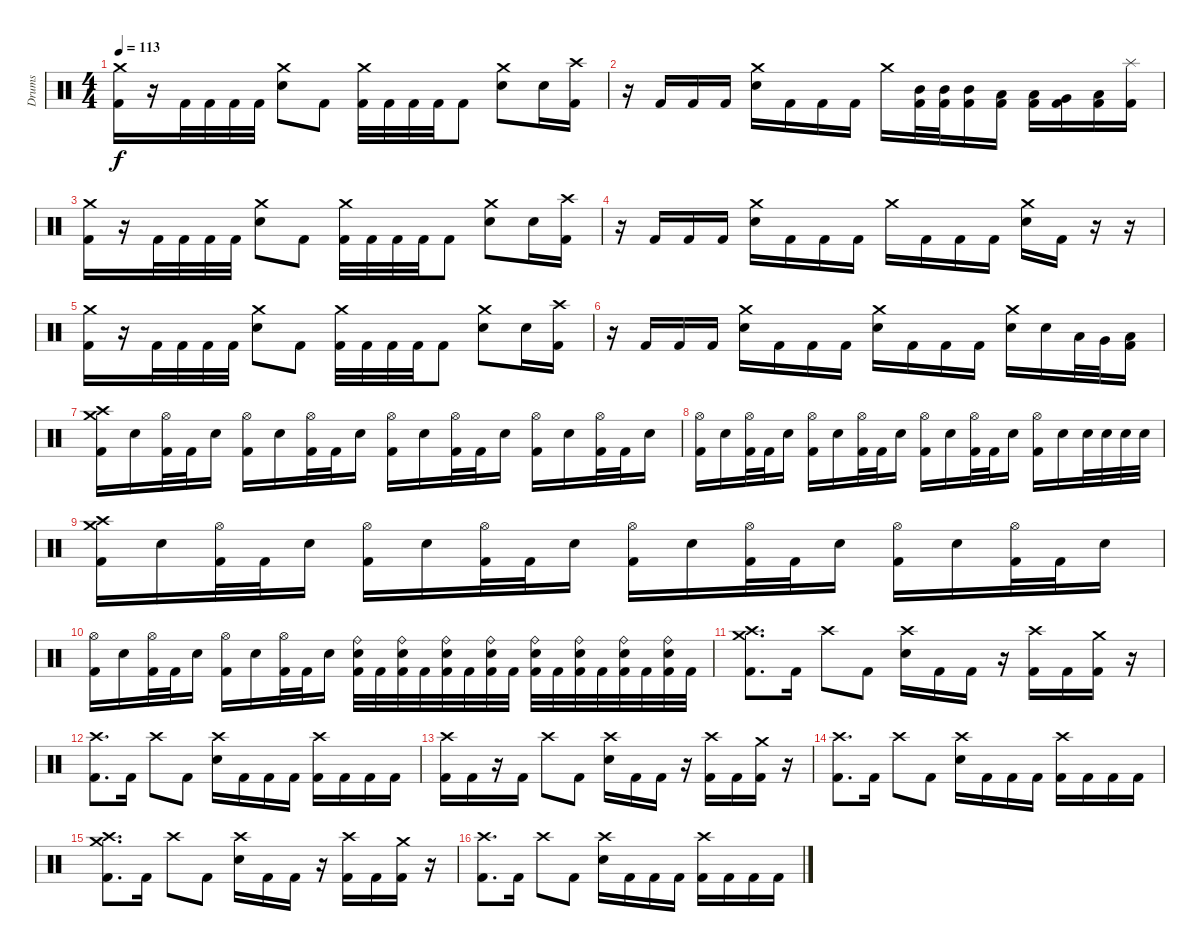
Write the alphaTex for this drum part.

\track ("Drums" "Drums") {instrument percussion}
\staff {score}
\articulation defaults
\ts (4 4)
\tempo 113
\clef neutral
\ks c
("Crash medium (hit)" "Kick (hit) 2").16{dy f} r.16 "Kick (hit) 2".32 "Kick (hit) 2".32 "Kick (hit) 2".32 "Kick (hit) 2".32 ("Crash medium (hit)" "Snare (hit) 2").8 "Kick (hit) 2".8 ("Crash medium (hit)" "Kick (hit) 2").32 "Kick (hit) 2".32 "Kick (hit) 2".32 "Kick (hit) 2".32 "Kick (hit) 2".8 ("Crash medium (hit)" "Snare (hit) 2").8 "Snare (hit) 2".16 ("Crash high (hit)" "Kick (hit) 2").16 |
r.16 "Kick (hit) 2".16 "Kick (hit) 2".16 "Kick (hit) 2".16 ("Crash medium (hit)" "Snare (hit) 2").16 "Kick (hit) 2".16 "Kick (hit) 2".16 "Kick (hit) 2".16 "Crash medium (hit)".16 ("Mid Tom (hit)" "Kick (hit) 2").32 ("Mid Tom (hit)" "Kick (hit) 2").32 ("Mid Tom (hit)" "Kick (hit) 2").16 ("Low Tom (hit)" "Kick (hit) 2").16 ("Low Tom (hit)" "Kick (hit) 2").16 ("Very Low Tom (hit)" "Kick (hit) 2").16 ("Low Floor Tom (hit)" "Kick (hit) 2").16 ("Splash (hit)" "Kick (hit) 2").16 |
("Crash medium (hit)" "Kick (hit) 2").16 r.16 "Kick (hit) 2".32 "Kick (hit) 2".32 "Kick (hit) 2".32 "Kick (hit) 2".32 ("Crash medium (hit)" "Snare (hit) 2").8 "Kick (hit) 2".8 ("Crash medium (hit)" "Kick (hit) 2").32 "Kick (hit) 2".32 "Kick (hit) 2".32 "Kick (hit) 2".32 "Kick (hit) 2".8 ("Crash medium (hit)" "Snare (hit) 2").8 "Snare (hit) 2".16 ("Crash high (hit)" "Kick (hit) 2").16 |
r.16 "Kick (hit) 2".16 "Kick (hit) 2".16 "Kick (hit) 2".16 ("Crash medium (hit)" "Snare (hit) 2").16 "Kick (hit) 2".16 "Kick (hit) 2".16 "Kick (hit) 2".16 "Crash medium (hit)".16 "Kick (hit) 2".16 "Kick (hit) 2".16 "Kick (hit) 2".16 ("Crash medium (hit)" "Snare (hit) 2").16 "Kick (hit) 2".16 r.16 r.16 |
("Crash medium (hit)" "Kick (hit) 2").16 r.16 "Kick (hit) 2".32 "Kick (hit) 2".32 "Kick (hit) 2".32 "Kick (hit) 2".32 ("Crash medium (hit)" "Snare (hit) 2").8 "Kick (hit) 2".8 ("Crash medium (hit)" "Kick (hit) 2").32 "Kick (hit) 2".32 "Kick (hit) 2".32 "Kick (hit) 2".32 "Kick (hit) 2".8 ("Crash medium (hit)" "Snare (hit) 2").8 "Snare (hit) 2".16 ("Crash high (hit)" "Kick (hit) 2").16 |
r.16 "Kick (hit) 2".16 "Kick (hit) 2".16 "Kick (hit) 2".16 ("Crash medium (hit)" "Snare (hit) 2").16 "Kick (hit) 2".16 "Kick (hit) 2".16 "Kick (hit) 2".16 ("Crash medium (hit)" "Snare (hit) 2").16 "Kick (hit) 2".16 "Kick (hit) 2".16 "Kick (hit) 2".16 ("Crash medium (hit)" "Snare (hit) 2").16 "Snare (hit) 2".16 "Low Tom (hit)".32 "Very Low Tom (hit)".32 ("Low Floor Tom (hit)" "Kick (hit) 2").16 |
("Crash high (hit)" "Crash medium (hit)" "Kick (hit) 2").16 "Snare (hit) 2".16 ("Hi-Hat (open)" "Kick (hit) 2").32 "Kick (hit) 2".32 "Snare (hit) 2".16 ("Hi-Hat (open)" "Kick (hit) 2").16 "Snare (hit) 2".16 ("Hi-Hat (open)" "Kick (hit) 2").32 "Kick (hit) 2".32 "Snare (hit) 2".16 ("Hi-Hat (open)" "Kick (hit) 2").16 "Snare (hit) 2".16 ("Hi-Hat (open)" "Kick (hit) 2").32 "Kick (hit) 2".32 "Snare (hit) 2".16 ("Hi-Hat (open)" "Kick (hit) 2").16 "Snare (hit) 2".16 ("Hi-Hat (open)" "Kick (hit) 2").32 "Kick (hit) 2".32 "Snare (hit) 2".16 |
("Hi-Hat (open)" "Kick (hit) 2").16 "Snare (hit) 2".16 ("Hi-Hat (open)" "Kick (hit) 2").32 "Kick (hit) 2".32 "Snare (hit) 2".16 ("Hi-Hat (open)" "Kick (hit) 2").16 "Snare (hit) 2".16 ("Hi-Hat (open)" "Kick (hit) 2").32 "Kick (hit) 2".32 "Snare (hit) 2".16 ("Hi-Hat (open)" "Kick (hit) 2").16 "Snare (hit) 2".16 ("Hi-Hat (open)" "Kick (hit) 2").32 "Kick (hit) 2".32 "Snare (hit) 2".16 ("Hi-Hat (open)" "Kick (hit) 2").16 "Snare (hit) 2".16 "Snare (hit) 2".32 "Snare (hit) 2".32 "Snare (hit) 2".32 "Snare (hit) 2".32 |
("Crash high (hit)" "Crash medium (hit)" "Kick (hit) 2").16 "Snare (hit) 2".16 ("Hi-Hat (open)" "Kick (hit) 2").32 "Kick (hit) 2".32 "Snare (hit) 2".16 ("Hi-Hat (open)" "Kick (hit) 2").16 "Snare (hit) 2".16 ("Hi-Hat (open)" "Kick (hit) 2").32 "Kick (hit) 2".32 "Snare (hit) 2".16 ("Hi-Hat (open)" "Kick (hit) 2").16 "Snare (hit) 2".16 ("Hi-Hat (open)" "Kick (hit) 2").32 "Kick (hit) 2".32 "Snare (hit) 2".16 ("Hi-Hat (open)" "Kick (hit) 2").16 "Snare (hit) 2".16 ("Hi-Hat (open)" "Kick (hit) 2").32 "Kick (hit) 2".32 "Snare (hit) 2".16 |
("Hi-Hat (open)" "Kick (hit) 2").16 "Snare (hit) 2".16 ("Hi-Hat (open)" "Kick (hit) 2").32 "Kick (hit) 2".32 "Snare (hit) 2".16 ("Hi-Hat (open)" "Kick (hit) 2").16 "Snare (hit) 2".16 ("Hi-Hat (open)" "Kick (hit) 2").32 "Kick (hit) 2".32 "Snare (hit) 2".16 ("Ride (bell)" "Snare (hit) 2" "Kick (hit) 2").32 "Kick (hit) 2".32 ("Ride (bell)" "Snare (hit) 2" "Kick (hit) 2").32 "Kick (hit) 2".32 ("Ride (bell)" "Snare (hit) 2" "Kick (hit) 2").32 "Kick (hit) 2".32 ("Ride (bell)" "Snare (hit) 2" "Kick (hit) 2").32 "Kick (hit) 2".32 ("Ride (bell)" "Snare (hit) 2" "Kick (hit) 2").32 "Kick (hit) 2".32 ("Ride (bell)" "Snare (hit) 2" "Kick (hit) 2").32 "Kick (hit) 2".32 ("Ride (bell)" "Snare (hit) 2" "Kick (hit) 2").32 "Kick (hit) 2".32 ("Ride (bell)" "Snare (hit) 2" "Kick (hit) 2").32 "Kick (hit) 2".32 |
("Crash medium (hit)" "Crash high (hit)" "Kick (hit) 2").8{d} "Kick (hit) 2".16 "Crash high (hit)".8 "Kick (hit) 2".8 ("Crash high (hit)" "Snare (hit) 2").16 "Kick (hit) 2".16 "Kick (hit) 2".16 r.16 ("Crash high (hit)" "Kick (hit) 2").16 "Kick (hit) 2".16 ("Crash medium (hit)" "Kick (hit) 2").16 r.16 |
("Crash high (hit)" "Kick (hit) 2").8{d} "Kick (hit) 2".16 "Crash high (hit)".8 "Kick (hit) 2".8 ("Crash high (hit)" "Snare (hit) 2").16 "Kick (hit) 2".16 "Kick (hit) 2".16 "Kick (hit) 2".16 ("Crash high (hit)" "Kick (hit) 2").16 "Kick (hit) 2".16 "Kick (hit) 2".16 "Kick (hit) 2".16 |
("Crash high (hit)" "Kick (hit) 2").16 "Kick (hit) 2".16 r.16 "Kick (hit) 2".16 "Crash high (hit)".8 "Kick (hit) 2".8 ("Crash high (hit)" "Snare (hit) 2").16 "Kick (hit) 2".16 "Kick (hit) 2".16 r.16 ("Crash high (hit)" "Kick (hit) 2").16 "Kick (hit) 2".16 ("Crash medium (hit)" "Kick (hit) 2").16 r.16 |
("Crash high (hit)" "Kick (hit) 2").8{d} "Kick (hit) 2".16 "Crash high (hit)".8 "Kick (hit) 2".8 ("Crash high (hit)" "Snare (hit) 2").16 "Kick (hit) 2".16 "Kick (hit) 2".16 "Kick (hit) 2".16 ("Crash high (hit)" "Kick (hit) 2").16 "Kick (hit) 2".16 "Kick (hit) 2".16 "Kick (hit) 2".16 |
("Crash medium (hit)" "Crash high (hit)" "Kick (hit) 2").8{d} "Kick (hit) 2".16 "Crash high (hit)".8 "Kick (hit) 2".8 ("Crash high (hit)" "Snare (hit) 2").16 "Kick (hit) 2".16 "Kick (hit) 2".16 r.16 ("Crash high (hit)" "Kick (hit) 2").16 "Kick (hit) 2".16 ("Crash medium (hit)" "Kick (hit) 2").16 r.16 |
("Crash high (hit)" "Kick (hit) 2").8{d} "Kick (hit) 2".16 "Crash high (hit)".8 "Kick (hit) 2".8 ("Crash high (hit)" "Snare (hit) 2").16 "Kick (hit) 2".16 "Kick (hit) 2".16 "Kick (hit) 2".16 ("Crash high (hit)" "Kick (hit) 2").16 "Kick (hit) 2".16 "Kick (hit) 2".16 "Kick (hit) 2".16
